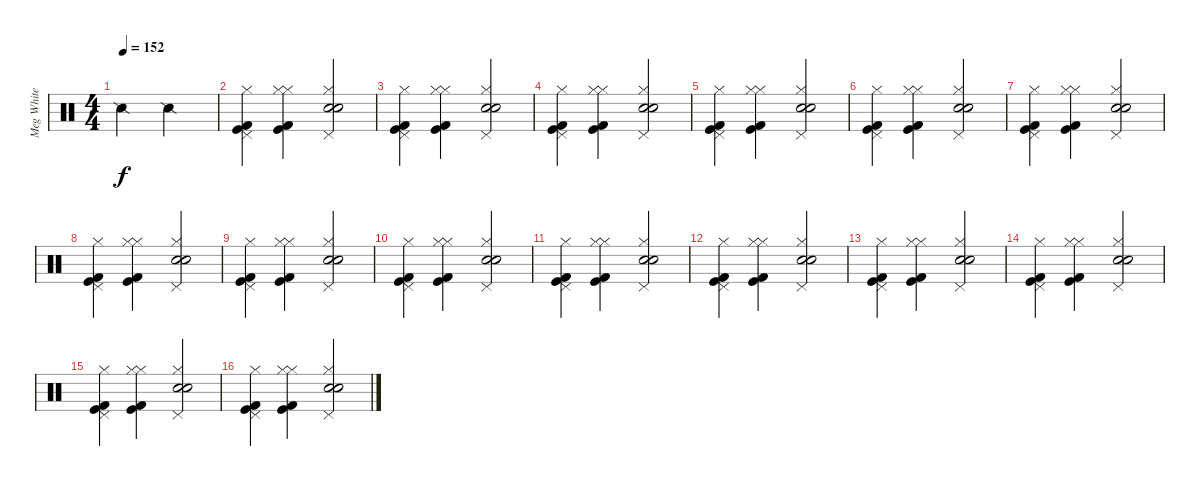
\track ("Meg White" "Meg White") {instrument percussion}
\staff {score}
\articulation defaults
\ts (4 4)
\tempo 152
\clef neutral
\ks c "Snare (side stick) 2".2{dy f} "Snare (side stick) 2".2
|
("Kick (hit) 2" "Kick (hit)" "Pedal Hi-Hat (hit)" "Hi-Hat (closed)").4 ("Kick (hit) 2" "Kick (hit)" "Hi-Hat (closed)" "Hi-Hat (closed)").4 ("Pedal Hi-Hat (hit)" "Electric Snare (hit)" "Snare (hit) 2" "Hi-Hat (closed)").2 |
("Kick (hit) 2" "Kick (hit)" "Pedal Hi-Hat (hit)" "Hi-Hat (closed)").4 ("Kick (hit) 2" "Kick (hit)" "Hi-Hat (closed)" "Hi-Hat (closed)").4 ("Pedal Hi-Hat (hit)" "Electric Snare (hit)" "Snare (hit) 2" "Hi-Hat (closed)").2 |
("Kick (hit) 2" "Kick (hit)" "Pedal Hi-Hat (hit)" "Hi-Hat (closed)").4 ("Kick (hit) 2" "Kick (hit)" "Hi-Hat (closed)" "Hi-Hat (closed)").4 ("Pedal Hi-Hat (hit)" "Electric Snare (hit)" "Snare (hit) 2" "Hi-Hat (closed)").2 |
("Kick (hit) 2" "Kick (hit)" "Pedal Hi-Hat (hit)" "Hi-Hat (closed)").4 ("Kick (hit) 2" "Kick (hit)" "Hi-Hat (closed)" "Hi-Hat (closed)").4 ("Pedal Hi-Hat (hit)" "Electric Snare (hit)" "Snare (hit) 2" "Hi-Hat (closed)").2 |
("Kick (hit) 2" "Kick (hit)" "Pedal Hi-Hat (hit)" "Hi-Hat (closed)").4 ("Kick (hit) 2" "Kick (hit)" "Hi-Hat (closed)" "Hi-Hat (closed)").4 ("Pedal Hi-Hat (hit)" "Electric Snare (hit)" "Snare (hit) 2" "Hi-Hat (closed)").2 |
("Kick (hit) 2" "Kick (hit)" "Pedal Hi-Hat (hit)" "Hi-Hat (closed)").4 ("Kick (hit) 2" "Kick (hit)" "Hi-Hat (closed)" "Hi-Hat (closed)").4 ("Pedal Hi-Hat (hit)" "Electric Snare (hit)" "Snare (hit) 2" "Hi-Hat (closed)").2 |
("Kick (hit) 2" "Kick (hit)" "Pedal Hi-Hat (hit)" "Hi-Hat (closed)").4 ("Kick (hit) 2" "Kick (hit)" "Hi-Hat (closed)" "Hi-Hat (closed)").4 ("Pedal Hi-Hat (hit)" "Electric Snare (hit)" "Snare (hit) 2" "Hi-Hat (closed)").2 |
("Kick (hit) 2" "Kick (hit)" "Pedal Hi-Hat (hit)" "Hi-Hat (closed)").4 ("Kick (hit) 2" "Kick (hit)" "Hi-Hat (closed)" "Hi-Hat (closed)").4 ("Pedal Hi-Hat (hit)" "Electric Snare (hit)" "Snare (hit) 2" "Hi-Hat (closed)").2 |
("Kick (hit) 2" "Kick (hit)" "Pedal Hi-Hat (hit)" "Hi-Hat (closed)").4 ("Kick (hit) 2" "Kick (hit)" "Hi-Hat (closed)" "Hi-Hat (closed)").4 ("Pedal Hi-Hat (hit)" "Electric Snare (hit)" "Snare (hit) 2" "Hi-Hat (closed)").2 |
("Kick (hit) 2" "Kick (hit)" "Pedal Hi-Hat (hit)" "Hi-Hat (closed)").4 ("Kick (hit) 2" "Kick (hit)" "Hi-Hat (closed)" "Hi-Hat (closed)").4 ("Pedal Hi-Hat (hit)" "Electric Snare (hit)" "Snare (hit) 2" "Hi-Hat (closed)").2 |
("Kick (hit) 2" "Kick (hit)" "Pedal Hi-Hat (hit)" "Hi-Hat (closed)").4 ("Kick (hit) 2" "Kick (hit)" "Hi-Hat (closed)" "Hi-Hat (closed)").4 ("Pedal Hi-Hat (hit)" "Electric Snare (hit)" "Snare (hit) 2" "Hi-Hat (closed)").2 |
("Kick (hit) 2" "Kick (hit)" "Pedal Hi-Hat (hit)" "Hi-Hat (closed)").4 ("Kick (hit) 2" "Kick (hit)" "Hi-Hat (closed)" "Hi-Hat (closed)").4 ("Pedal Hi-Hat (hit)" "Electric Snare (hit)" "Snare (hit) 2" "Hi-Hat (closed)").2 |
("Kick (hit) 2" "Kick (hit)" "Pedal Hi-Hat (hit)" "Hi-Hat (closed)").4 ("Kick (hit) 2" "Kick (hit)" "Hi-Hat (closed)" "Hi-Hat (closed)").4 ("Pedal Hi-Hat (hit)" "Electric Snare (hit)" "Snare (hit) 2" "Hi-Hat (closed)").2 |
("Kick (hit) 2" "Kick (hit)" "Pedal Hi-Hat (hit)" "Hi-Hat (closed)").4 ("Kick (hit) 2" "Kick (hit)" "Hi-Hat (closed)" "Hi-Hat (closed)").4 ("Pedal Hi-Hat (hit)" "Electric Snare (hit)" "Snare (hit) 2" "Hi-Hat (closed)").2 |
("Kick (hit) 2" "Kick (hit)" "Pedal Hi-Hat (hit)" "Hi-Hat (closed)").4 ("Kick (hit) 2" "Kick (hit)" "Hi-Hat (closed)" "Hi-Hat (closed)").4 ("Pedal Hi-Hat (hit)" "Electric Snare (hit)" "Snare (hit) 2" "Hi-Hat (closed)").2
